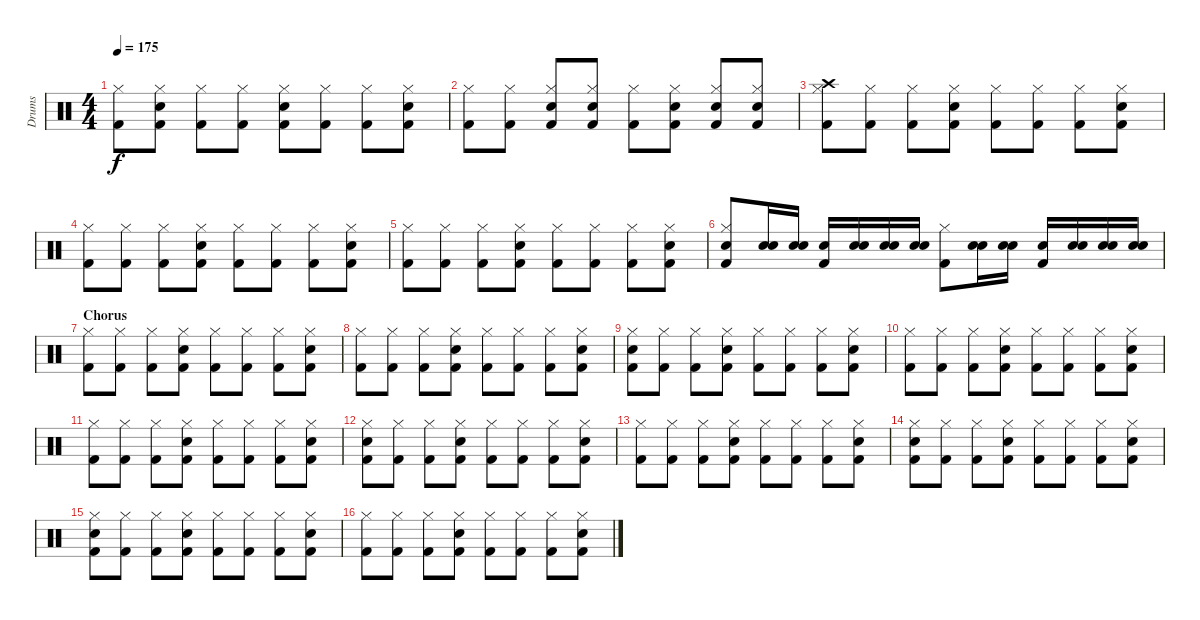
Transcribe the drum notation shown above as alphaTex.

\track ("Drums" "Drums") {instrument percussion}
\staff {score}
\articulation defaults
\ts (4 4)
\tempo 175
\clef neutral
\ks c
("Kick (hit) 2" "Hi-Hat (closed)").8{dy f} ("Kick (hit) 2" "Hi-Hat (closed)" "Snare (hit) 2").8 ("Kick (hit) 2" "Hi-Hat (closed)").8 ("Kick (hit) 2" "Hi-Hat (closed)").8 ("Kick (hit) 2" "Hi-Hat (closed)" "Snare (hit) 2").8 ("Kick (hit) 2" "Hi-Hat (closed)").8 ("Kick (hit) 2" "Hi-Hat (closed)").8 ("Kick (hit) 2" "Hi-Hat (closed)" "Snare (hit) 2").8 |
("Kick (hit) 2" "Hi-Hat (closed)").8 ("Kick (hit) 2" "Hi-Hat (closed)").8 ("Kick (hit) 2" "Hi-Hat (closed)" "Snare (hit) 2").8 ("Kick (hit) 2" "Hi-Hat (closed)" "Snare (hit) 2").8 ("Kick (hit) 2" "Hi-Hat (closed)").8 ("Kick (hit) 2" "Hi-Hat (closed)" "Snare (hit) 2").8 ("Kick (hit) 2" "Hi-Hat (closed)" "Snare (hit) 2").8 ("Kick (hit) 2" "Hi-Hat (closed)" "Snare (hit) 2").8 |
("Kick (hit) 2" "Hi-Hat (closed)" "Crash high (hit)").8 ("Kick (hit) 2" "Hi-Hat (closed)").8 ("Kick (hit) 2" "Hi-Hat (closed)").8 ("Kick (hit) 2" "Hi-Hat (closed)" "Snare (hit) 2").8 ("Kick (hit) 2" "Hi-Hat (closed)").8 ("Kick (hit) 2" "Hi-Hat (closed)").8 ("Kick (hit) 2" "Hi-Hat (closed)").8 ("Kick (hit) 2" "Hi-Hat (closed)" "Snare (hit) 2").8 |
("Kick (hit) 2" "Hi-Hat (closed)").8 ("Kick (hit) 2" "Hi-Hat (closed)").8 ("Kick (hit) 2" "Hi-Hat (closed)").8 ("Kick (hit) 2" "Hi-Hat (closed)" "Snare (hit) 2").8 ("Kick (hit) 2" "Hi-Hat (closed)").8 ("Kick (hit) 2" "Hi-Hat (closed)").8 ("Kick (hit) 2" "Hi-Hat (closed)").8 ("Kick (hit) 2" "Hi-Hat (closed)" "Snare (hit) 2").8 |
("Kick (hit) 2" "Hi-Hat (closed)").8 ("Kick (hit) 2" "Hi-Hat (closed)").8 ("Kick (hit) 2" "Hi-Hat (closed)").8 ("Kick (hit) 2" "Hi-Hat (closed)" "Snare (hit) 2").8 ("Kick (hit) 2" "Hi-Hat (closed)").8 ("Kick (hit) 2" "Hi-Hat (closed)").8 ("Kick (hit) 2" "Hi-Hat (closed)").8 ("Kick (hit) 2" "Hi-Hat (closed)" "Snare (hit) 2").8 |
("Kick (hit) 2" "Hi-Hat (closed)" "Snare (hit)").8 ("Snare (hit)" "Snare (hit) 2").16 ("Snare (hit)" "Snare (hit) 2").16 ("Kick (hit) 2" "Snare (hit) 2").16 ("Snare (hit)" "Snare (hit) 2").16 ("Snare (hit)" "Snare (hit) 2").16 ("Snare (hit)" "Snare (hit) 2").16 ("Kick (hit) 2" "Hi-Hat (closed)").8 ("Snare (hit)" "Snare (hit) 2").16 ("Snare (hit)" "Snare (hit) 2").16 ("Kick (hit) 2" "Snare (hit) 2").16 ("Snare (hit)" "Snare (hit) 2").16 ("Snare (hit)" "Snare (hit) 2").16 ("Snare (hit)" "Snare (hit) 2").16 |
\section ("" "Chorus")
("Kick (hit) 2" "Hi-Hat (closed)").8 ("Kick (hit) 2" "Hi-Hat (closed)").8 ("Kick (hit) 2" "Hi-Hat (closed)").8 ("Kick (hit) 2" "Hi-Hat (closed)" "Snare (hit) 2").8 ("Kick (hit) 2" "Hi-Hat (closed)").8 ("Kick (hit) 2" "Hi-Hat (closed)").8 ("Kick (hit) 2" "Hi-Hat (closed)").8 ("Kick (hit) 2" "Hi-Hat (closed)" "Snare (hit) 2").8 |
("Kick (hit) 2" "Hi-Hat (closed)").8 ("Kick (hit) 2" "Hi-Hat (closed)").8 ("Kick (hit) 2" "Hi-Hat (closed)").8 ("Kick (hit) 2" "Hi-Hat (closed)" "Snare (hit) 2").8 ("Kick (hit) 2" "Hi-Hat (closed)").8 ("Kick (hit) 2" "Hi-Hat (closed)").8 ("Kick (hit) 2" "Hi-Hat (closed)").8 ("Kick (hit) 2" "Hi-Hat (closed)" "Snare (hit) 2").8 |
("Kick (hit) 2" "Hi-Hat (closed)" "Metronome (bell)").8 ("Kick (hit) 2" "Hi-Hat (closed)").8 ("Kick (hit) 2" "Hi-Hat (closed)").8 ("Kick (hit) 2" "Hi-Hat (closed)" "Snare (hit) 2").8 ("Kick (hit) 2" "Hi-Hat (closed)").8 ("Kick (hit) 2" "Hi-Hat (closed)").8 ("Kick (hit) 2" "Hi-Hat (closed)").8 ("Kick (hit) 2" "Hi-Hat (closed)" "Snare (hit) 2").8 |
("Kick (hit) 2" "Hi-Hat (closed)").8 ("Kick (hit) 2" "Hi-Hat (closed)").8 ("Kick (hit) 2" "Hi-Hat (closed)").8 ("Kick (hit) 2" "Hi-Hat (closed)" "Snare (hit) 2").8 ("Kick (hit) 2" "Hi-Hat (closed)").8 ("Kick (hit) 2" "Hi-Hat (closed)").8 ("Kick (hit) 2" "Hi-Hat (closed)").8 ("Kick (hit) 2" "Hi-Hat (closed)" "Snare (hit) 2").8 |
("Kick (hit) 2" "Hi-Hat (closed)").8 ("Kick (hit) 2" "Hi-Hat (closed)").8 ("Kick (hit) 2" "Hi-Hat (closed)").8 ("Kick (hit) 2" "Hi-Hat (closed)" "Snare (hit) 2").8 ("Kick (hit) 2" "Hi-Hat (closed)").8 ("Kick (hit) 2" "Hi-Hat (closed)").8 ("Kick (hit) 2" "Hi-Hat (closed)").8 ("Kick (hit) 2" "Hi-Hat (closed)" "Snare (hit) 2").8 |
("Kick (hit) 2" "Hi-Hat (closed)" "Metronome (bell)").8 ("Kick (hit) 2" "Hi-Hat (closed)").8 ("Kick (hit) 2" "Hi-Hat (closed)").8 ("Kick (hit) 2" "Hi-Hat (closed)" "Snare (hit) 2").8 ("Kick (hit) 2" "Hi-Hat (closed)").8 ("Kick (hit) 2" "Hi-Hat (closed)").8 ("Kick (hit) 2" "Hi-Hat (closed)").8 ("Kick (hit) 2" "Hi-Hat (closed)" "Snare (hit) 2").8 |
("Kick (hit) 2" "Hi-Hat (closed)").8 ("Kick (hit) 2" "Hi-Hat (closed)").8 ("Kick (hit) 2" "Hi-Hat (closed)").8 ("Kick (hit) 2" "Hi-Hat (closed)" "Snare (hit) 2").8 ("Kick (hit) 2" "Hi-Hat (closed)").8 ("Kick (hit) 2" "Hi-Hat (closed)").8 ("Kick (hit) 2" "Hi-Hat (closed)").8 ("Kick (hit) 2" "Hi-Hat (closed)" "Snare (hit) 2").8 |
("Kick (hit) 2" "Hi-Hat (closed)" "Metronome (bell)").8 ("Kick (hit) 2" "Hi-Hat (closed)").8 ("Kick (hit) 2" "Hi-Hat (closed)").8 ("Kick (hit) 2" "Hi-Hat (closed)" "Snare (hit) 2").8 ("Kick (hit) 2" "Hi-Hat (closed)").8 ("Kick (hit) 2" "Hi-Hat (closed)").8 ("Kick (hit) 2" "Hi-Hat (closed)").8 ("Kick (hit) 2" "Hi-Hat (closed)" "Snare (hit) 2").8 |
("Kick (hit) 2" "Hi-Hat (closed)" "Metronome (bell)").8 ("Kick (hit) 2" "Hi-Hat (closed)").8 ("Kick (hit) 2" "Hi-Hat (closed)").8 ("Kick (hit) 2" "Hi-Hat (closed)" "Snare (hit) 2").8 ("Kick (hit) 2" "Hi-Hat (closed)").8 ("Kick (hit) 2" "Hi-Hat (closed)").8 ("Kick (hit) 2" "Hi-Hat (closed)").8 ("Kick (hit) 2" "Hi-Hat (closed)" "Snare (hit) 2").8 |
("Kick (hit) 2" "Hi-Hat (closed)").8 ("Kick (hit) 2" "Hi-Hat (closed)").8 ("Kick (hit) 2" "Hi-Hat (closed)").8 ("Kick (hit) 2" "Hi-Hat (closed)" "Snare (hit) 2").8 ("Kick (hit) 2" "Hi-Hat (closed)").8 ("Kick (hit) 2" "Hi-Hat (closed)").8 ("Kick (hit) 2" "Hi-Hat (closed)").8 ("Kick (hit) 2" "Hi-Hat (closed)" "Snare (hit) 2").8
